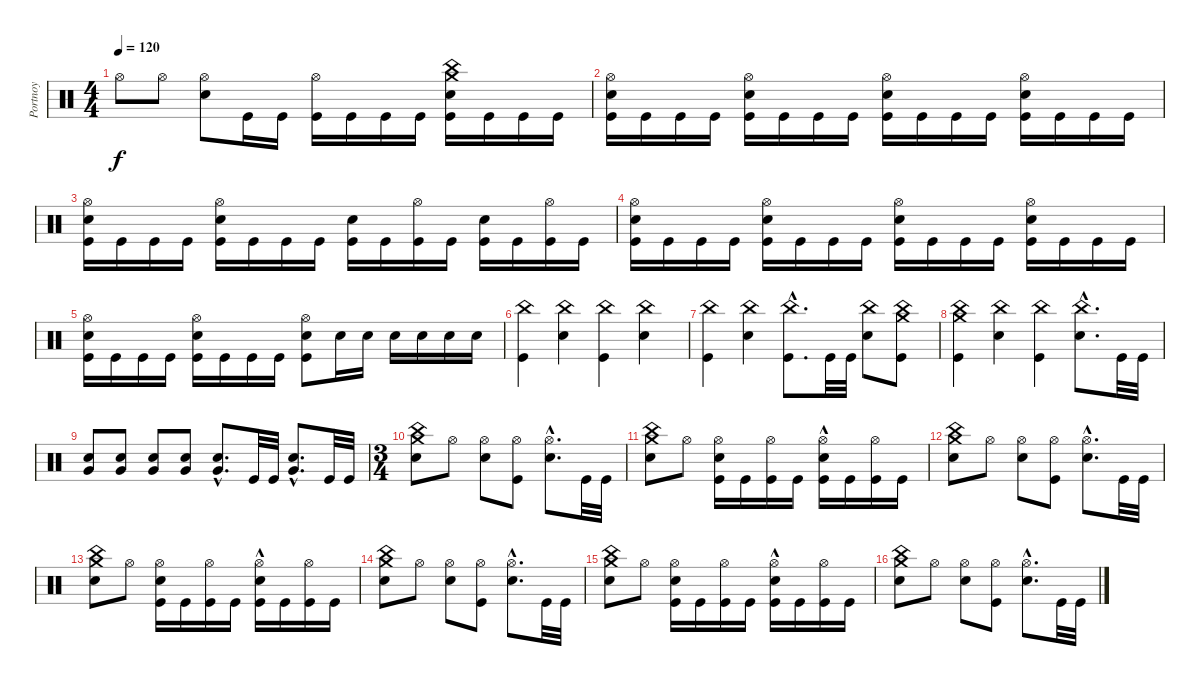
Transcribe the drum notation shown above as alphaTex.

\track ("Portnoy" "Portnoy") {instrument percussion}
\staff {score}
\articulation defaults
\ts (4 4)
\tempo 120
\clef neutral
\ks c "Hi-Hat (open)".8{dy f} "Hi-Hat (open)".8
("Hi-Hat (open)" "Snare (hit) 2").8 "Kick (hit)".16 "Kick (hit)".16 ("Hi-Hat (open)" "Kick (hit)").16 "Kick (hit)".16 "Kick (hit)".16 "Kick (hit)".16 ("Crash medium (hit)" "Kick (hit)" "Snare (hit) 2" "China (hit)").16 "Kick (hit)".16 "Kick (hit)".16 "Kick (hit)".16 |
("Hi-Hat (open)" "Kick (hit)" "Snare (hit) 2").16 "Kick (hit)".16 "Kick (hit)".16 "Kick (hit)".16 ("Hi-Hat (open)" "Kick (hit)" "Snare (hit) 2").16 "Kick (hit)".16 "Kick (hit)".16 "Kick (hit)".16 ("Hi-Hat (open)" "Kick (hit)" "Snare (hit) 2").16 "Kick (hit)".16 "Kick (hit)".16 "Kick (hit)".16 ("Hi-Hat (open)" "Kick (hit)" "Snare (hit) 2").16 "Kick (hit)".16 "Kick (hit)".16 "Kick (hit)".16 |
("Hi-Hat (open)" "Kick (hit)" "Snare (hit) 2").16 "Kick (hit)".16 "Kick (hit)".16 "Kick (hit)".16 ("Hi-Hat (open)" "Kick (hit)" "Snare (hit) 2").16 "Kick (hit)".16 "Kick (hit)".16 "Kick (hit)".16 ("Kick (hit)" "Snare (hit) 2").16 "Kick (hit)".16 ("Hi-Hat (open)" "Kick (hit)").16 "Kick (hit)".16 ("Kick (hit)" "Snare (hit) 2").16 "Kick (hit)".16 ("Hi-Hat (open)" "Kick (hit)").16 "Kick (hit)".16 |
("Hi-Hat (open)" "Kick (hit)" "Snare (hit) 2").16 "Kick (hit)".16 "Kick (hit)".16 "Kick (hit)".16 ("Hi-Hat (open)" "Kick (hit)" "Snare (hit) 2").16 "Kick (hit)".16 "Kick (hit)".16 "Kick (hit)".16 ("Hi-Hat (open)" "Kick (hit)" "Snare (hit) 2").16 "Kick (hit)".16 "Kick (hit)".16 "Kick (hit)".16 ("Hi-Hat (open)" "Kick (hit)" "Snare (hit) 2").16 "Kick (hit)".16 "Kick (hit)".16 "Kick (hit)".16 |
("Hi-Hat (open)" "Kick (hit)" "Snare (hit) 2").16 "Kick (hit)".16 "Kick (hit)".16 "Kick (hit)".16 ("Hi-Hat (open)" "Kick (hit)" "Snare (hit) 2").16 "Kick (hit)".16 "Kick (hit)".16 "Kick (hit)".16 ("Hi-Hat (open)" "Kick (hit)" "Snare (hit) 2").8 "Snare (hit) 2".16 "Snare (hit) 2".16 "Snare (hit) 2".16 "Snare (hit) 2".16 "Snare (hit) 2".16 "Snare (hit) 2".16 |
("China (hit)" "Kick (hit)").4 ("China (hit)" "Snare (hit) 2").4 ("China (hit)" "Kick (hit)").4 ("China (hit)" "Snare (hit) 2").4 |
("China (hit)" "Kick (hit)").4 ("China (hit)" "Snare (hit) 2").4 ("China (hit)"{hac} "Kick (hit)"{hac}).8{d} "Kick (hit)".32 "Kick (hit)".32 ("China (hit)" "Snare (hit) 2").8 ("Crash medium (hit)" "Kick (hit)" "China (hit)").8 |
("Crash medium (hit)" "Kick (hit)" "China (hit)").4 ("China (hit)" "Snare (hit) 2").4 ("China (hit)" "Kick (hit)").4 ("China (hit)"{hac} "Snare (hit) 2"{hac}).8{d} "Kick (hit)".32 "Kick (hit)".32 |
("Snare (hit) 2" "Very Low Tom (hit)").8 ("Snare (hit) 2" "Very Low Tom (hit)").8 ("Snare (hit) 2" "Very Low Tom (hit)").8 ("Snare (hit) 2" "Very Low Tom (hit)").8 ("Snare (hit) 2"{hac} "Very Low Tom (hit)"{hac}).8{d} "Kick (hit)".32 "Kick (hit)".32 ("Snare (hit) 2"{hac} "Very Low Tom (hit)"{hac}).8{d} "Kick (hit)".32 "Kick (hit)".32 |
\ts (3 4)
("Crash medium (hit)" "Snare (hit) 2" "China (hit)").8 "Hi-Hat (open)".8 ("Hi-Hat (open)" "Snare (hit) 2").8 ("Hi-Hat (open)" "Kick (hit)").8 ("Hi-Hat (open)"{hac} "Snare (hit) 2"{hac}).8{d} "Kick (hit)".32 "Kick (hit)".32 |
("Crash medium (hit)" "Snare (hit) 2" "China (hit)").8 "Hi-Hat (open)".8 ("Hi-Hat (open)" "Snare (hit) 2" "Kick (hit)").16 "Kick (hit)".16 ("Hi-Hat (open)" "Kick (hit)").16 "Kick (hit)".16 ("Hi-Hat (open)"{hac} "Snare (hit) 2" "Kick (hit)").16 "Kick (hit)".16 ("Hi-Hat (open)" "Kick (hit)").16 "Kick (hit)".16 |
("Crash medium (hit)" "Snare (hit) 2" "China (hit)").8 "Hi-Hat (open)".8 ("Hi-Hat (open)" "Snare (hit) 2").8 ("Hi-Hat (open)" "Kick (hit)").8 ("Hi-Hat (open)"{hac} "Snare (hit) 2"{hac}).8{d} "Kick (hit)".32 "Kick (hit)".32 |
("Crash medium (hit)" "Snare (hit) 2" "China (hit)").8 "Hi-Hat (open)".8 ("Hi-Hat (open)" "Snare (hit) 2" "Kick (hit)").16 "Kick (hit)".16 ("Hi-Hat (open)" "Kick (hit)").16 "Kick (hit)".16 ("Hi-Hat (open)"{hac} "Snare (hit) 2" "Kick (hit)").16 "Kick (hit)".16 ("Hi-Hat (open)" "Kick (hit)").16 "Kick (hit)".16 |
("Crash medium (hit)" "Snare (hit) 2" "China (hit)").8 "Hi-Hat (open)".8 ("Hi-Hat (open)" "Snare (hit) 2").8 ("Hi-Hat (open)" "Kick (hit)").8 ("Hi-Hat (open)"{hac} "Snare (hit) 2"{hac}).8{d} "Kick (hit)".32 "Kick (hit)".32 |
("Crash medium (hit)" "Snare (hit) 2" "China (hit)").8 "Hi-Hat (open)".8 ("Hi-Hat (open)" "Snare (hit) 2" "Kick (hit)").16 "Kick (hit)".16 ("Hi-Hat (open)" "Kick (hit)").16 "Kick (hit)".16 ("Hi-Hat (open)"{hac} "Snare (hit) 2" "Kick (hit)").16 "Kick (hit)".16 ("Hi-Hat (open)" "Kick (hit)").16 "Kick (hit)".16 |
("Crash medium (hit)" "Snare (hit) 2" "China (hit)").8 "Hi-Hat (open)".8 ("Hi-Hat (open)" "Snare (hit) 2").8 ("Hi-Hat (open)" "Kick (hit)").8 ("Hi-Hat (open)"{hac} "Snare (hit) 2"{hac}).8{d} "Kick (hit)".32 "Kick (hit)".32
